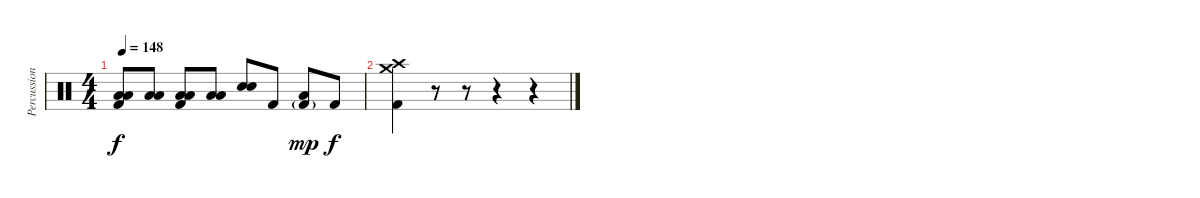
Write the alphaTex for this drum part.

\track ("Percussion" "Percussion") {instrument percussion}
\staff {score}
\articulation defaults
\ts (4 4)
\tempo 148
\clef neutral
\ks c
("Low Tom (hit)" "Low Floor Tom (hit)" "Kick (hit) 2").8{dy f} ("Low Tom (hit)" "Low Floor Tom (hit)").8 ("Low Tom (hit)" "Low Floor Tom (hit)" "Kick (hit) 2").8 ("Low Tom (hit)" "Low Floor Tom (hit)").8 ("Electric Snare (hit)" "Electric Snare (hit)").8 "Kick (hit) 2".8 ("Low Floor Tom (hit)" "Kick (hit) 2"{g}).8{dy mp} "Kick (hit) 2".8{dy f} |
("Crash medium (hit)" "Crash high (hit)" "Kick (hit) 2").4 r.8 r.8{volume 0} r.4 r.4
